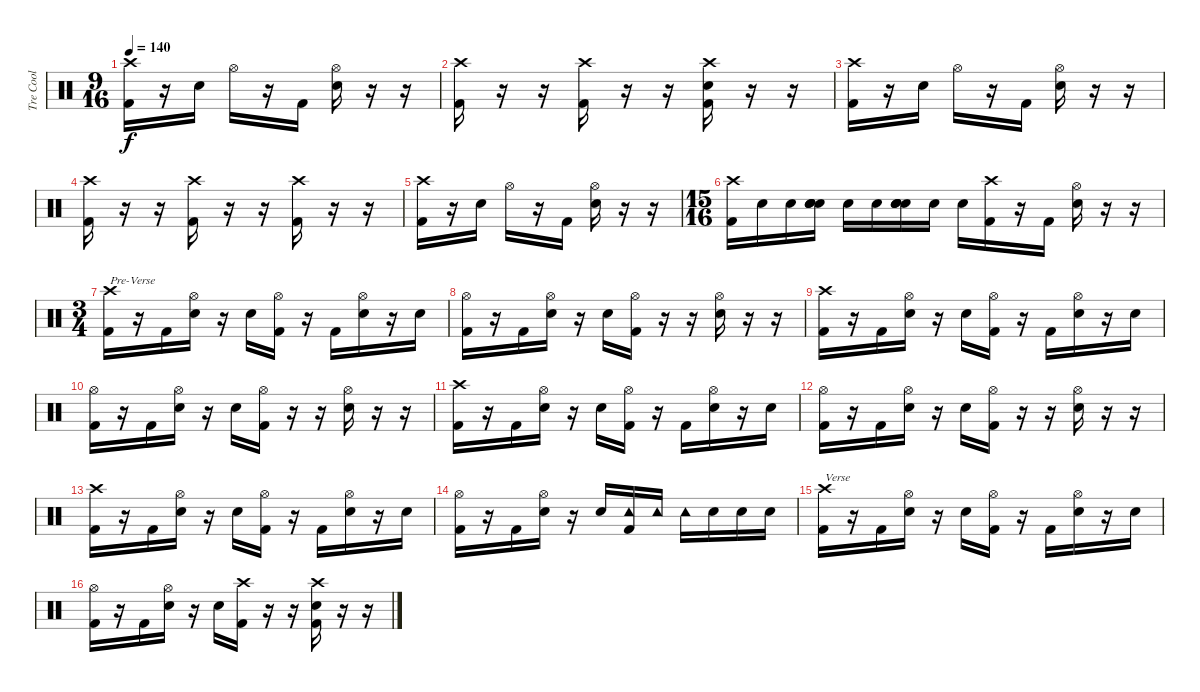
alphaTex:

\track ("Tre Cool" "Tre Cool") {instrument percussion}
\staff {score}
\articulation defaults
\ts (9 16)
\tempo 140
\clef neutral
\ks c
("Crash high (hit)" "Kick (hit) 2").16{dy f} r.16 "Snare (hit) 2".16 "Hi-Hat (open)".16 r.16 "Kick (hit) 2".16 ("Hi-Hat (open)" "Snare (hit) 2").16 r.16 r.16 |
("Crash high (hit)" "Kick (hit) 2").16 r.16 r.16 ("Crash high (hit)" "Kick (hit) 2").16 r.16 r.16 ("Crash high (hit)" "Snare (hit) 2" "Kick (hit) 2").16 r.16 r.16 |
("Crash high (hit)" "Kick (hit) 2").16 r.16 "Snare (hit) 2".16 "Hi-Hat (open)".16 r.16 "Kick (hit) 2".16 ("Hi-Hat (open)" "Snare (hit) 2").16 r.16 r.16 |
("Crash high (hit)" "Kick (hit) 2").16 r.16 r.16 ("Crash high (hit)" "Kick (hit) 2").16 r.16 r.16 ("Crash high (hit)" "Kick (hit) 2").16 r.16 r.16 |
("Crash high (hit)" "Kick (hit) 2").16 r.16 "Snare (hit) 2".16 "Hi-Hat (open)".16 r.16 "Kick (hit) 2".16 ("Hi-Hat (open)" "Snare (hit) 2").16 r.16 r.16 |
\ts (15 16)
("Crash high (hit)" "Kick (hit) 2").16 "Snare (hit) 2".16 "Snare (hit) 2".16 ("Snare (hit) 2" "Snare (hit) 2" "Snare (hit) 2" "Snare (hit) 2").16 "Snare (hit) 2".16 "Snare (hit) 2".16 ("Snare (hit) 2" "Snare (hit) 2" "Snare (hit) 2" "Snare (hit) 2").16 "Snare (hit) 2".16 "Snare (hit) 2".16 ("Crash high (hit)" "Kick (hit) 2").16 r.16 "Kick (hit) 2".16 ("Hi-Hat (open)" "Snare (hit) 2").16 r.16 r.16 |
\ts (3 4)
("Crash high (hit)" "Kick (hit) 2").16{txt "Pre-Verse"} r.16 "Kick (hit) 2".16 ("Hi-Hat (open)" "Snare (hit) 2").16 r.16 "Snare (hit) 2".16 ("Hi-Hat (open)" "Kick (hit) 2").16 r.16 "Kick (hit) 2".16 ("Hi-Hat (open)" "Snare (hit) 2").16 r.16 "Snare (hit) 2".16 |
("Hi-Hat (open)" "Kick (hit) 2").16 r.16 "Kick (hit) 2".16 ("Hi-Hat (open)" "Snare (hit) 2").16 r.16 "Snare (hit) 2".16 ("Hi-Hat (open)" "Kick (hit) 2").16 r.16 r.16 ("Hi-Hat (open)" "Snare (hit) 2").16 r.16 r.16 |
("Crash high (hit)" "Kick (hit) 2").16 r.16 "Kick (hit) 2".16 ("Hi-Hat (open)" "Snare (hit) 2").16 r.16 "Snare (hit) 2".16 ("Hi-Hat (open)" "Kick (hit) 2").16 r.16 "Kick (hit) 2".16 ("Hi-Hat (open)" "Snare (hit) 2").16 r.16 "Snare (hit) 2".16 |
("Hi-Hat (open)" "Kick (hit) 2").16 r.16 "Kick (hit) 2".16 ("Hi-Hat (open)" "Snare (hit) 2").16 r.16 "Snare (hit) 2".16 ("Hi-Hat (open)" "Kick (hit) 2").16 r.16 r.16 ("Hi-Hat (open)" "Snare (hit) 2").16 r.16 r.16 |
("Crash high (hit)" "Kick (hit) 2").16 r.16 "Kick (hit) 2".16 ("Hi-Hat (open)" "Snare (hit) 2").16 r.16 "Snare (hit) 2".16 ("Hi-Hat (open)" "Kick (hit) 2").16 r.16 "Kick (hit) 2".16 ("Hi-Hat (open)" "Snare (hit) 2").16 r.16 "Snare (hit) 2".16 |
("Hi-Hat (open)" "Kick (hit) 2").16 r.16 "Kick (hit) 2".16 ("Hi-Hat (open)" "Snare (hit) 2").16 r.16 "Snare (hit) 2".16 ("Hi-Hat (open)" "Kick (hit) 2").16 r.16 r.16 ("Hi-Hat (open)" "Snare (hit) 2").16 r.16 r.16 |
("Crash high (hit)" "Kick (hit) 2").16 r.16 "Kick (hit) 2".16 ("Hi-Hat (open)" "Snare (hit) 2").16 r.16 "Snare (hit) 2".16 ("Hi-Hat (open)" "Kick (hit) 2").16 r.16 "Kick (hit) 2".16 ("Hi-Hat (open)" "Snare (hit) 2").16 r.16 "Snare (hit) 2".16 |
("Hi-Hat (open)" "Kick (hit) 2").16 r.16 "Kick (hit) 2".16 ("Hi-Hat (open)" "Snare (hit) 2").16 r.16 "Snare (hit) 2".16 ("Tambourine (hit)" "Kick (hit) 2").16 "Tambourine (hit)".16 "Tambourine (hit)".16 "Snare (hit) 2".16 "Snare (hit) 2".16 "Snare (hit) 2".16 |
("Crash high (hit)" "Kick (hit) 2").16{txt "Verse"} r.16 "Kick (hit) 2".16 ("Hi-Hat (open)" "Snare (hit) 2").16 r.16 "Snare (hit) 2".16 ("Hi-Hat (open)" "Kick (hit) 2").16 r.16 "Kick (hit) 2".16 ("Hi-Hat (open)" "Snare (hit) 2").16 r.16 "Snare (hit) 2".16 |
("Hi-Hat (open)" "Kick (hit) 2").16 r.16 "Kick (hit) 2".16 ("Hi-Hat (open)" "Snare (hit) 2").16 r.16 "Snare (hit) 2".16 ("Crash high (hit)" "Kick (hit) 2").16 r.16 r.16 ("Crash high (hit)" "Snare (hit) 2" "Kick (hit) 2").16 r.16 r.16
